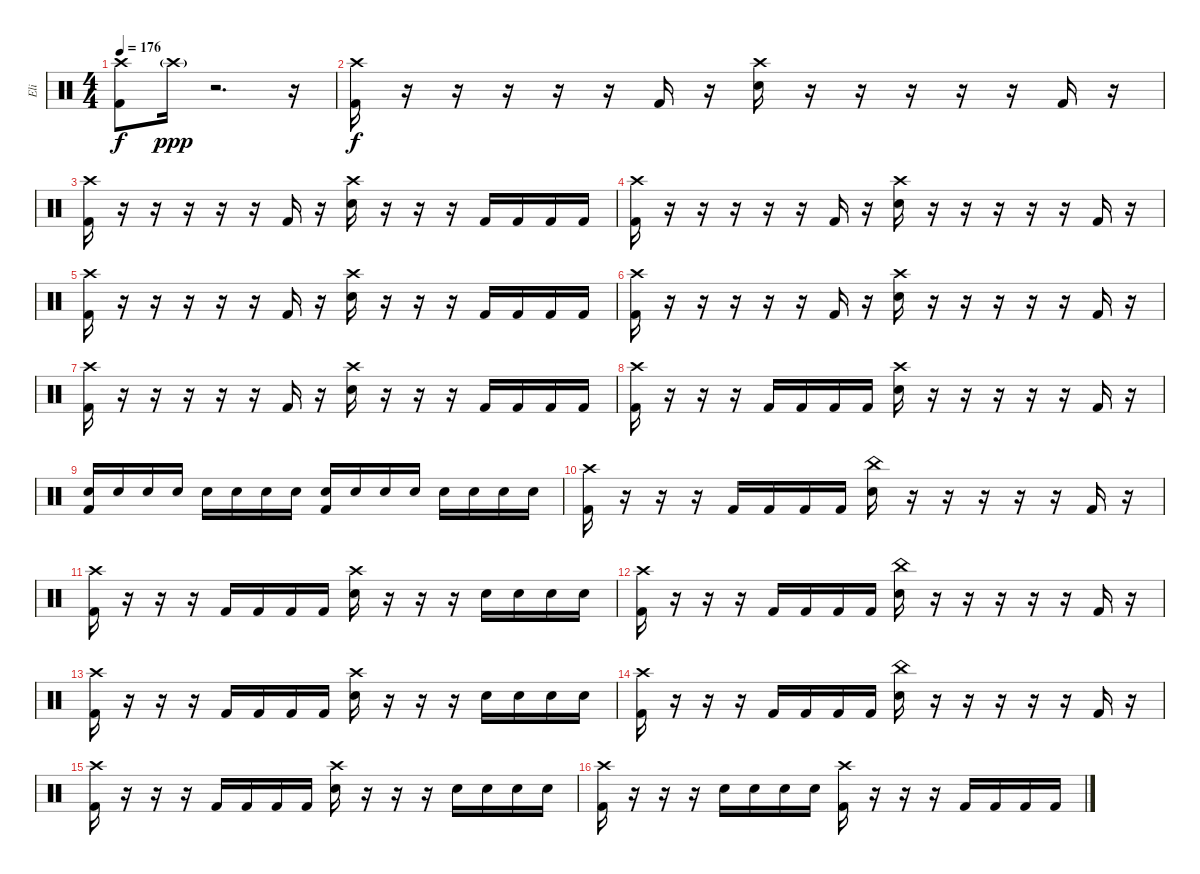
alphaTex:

\track ("Eli" "Eli") {instrument percussion}
\staff {score}
\articulation defaults
\ts (4 4)
\tempo 176
\clef neutral
\ks c
("Crash high (hit)" "Kick (hit) 2").8{dy f} "Crash high (hit)"{g}.16{dy ppp} r.2{d} r.16 |
("Crash high (hit)" "Kick (hit) 2").16{dy f} r.16 r.16 r.16 r.16 r.16 "Kick (hit) 2".16 r.16 ("Crash high (hit)" "Snare (hit) 2").16 r.16 r.16 r.16 r.16 r.16 "Kick (hit) 2".16 r.16 |
("Crash high (hit)" "Kick (hit) 2").16 r.16 r.16 r.16 r.16 r.16 "Kick (hit) 2".16 r.16 ("Crash high (hit)" "Snare (hit) 2").16 r.16 r.16 r.16 "Kick (hit) 2".16 "Kick (hit) 2".16 "Kick (hit) 2".16 "Kick (hit) 2".16 |
("Crash high (hit)" "Kick (hit) 2").16 r.16 r.16 r.16 r.16 r.16 "Kick (hit) 2".16 r.16 ("Crash high (hit)" "Snare (hit) 2").16 r.16 r.16 r.16 r.16 r.16 "Kick (hit) 2".16 r.16 |
("Crash high (hit)" "Kick (hit) 2").16 r.16 r.16 r.16 r.16 r.16 "Kick (hit) 2".16 r.16 ("Crash high (hit)" "Snare (hit) 2").16 r.16 r.16 r.16 "Kick (hit) 2".16 "Kick (hit) 2".16 "Kick (hit) 2".16 "Kick (hit) 2".16 |
("Crash high (hit)" "Kick (hit) 2").16 r.16 r.16 r.16 r.16 r.16 "Kick (hit) 2".16 r.16 ("Crash high (hit)" "Snare (hit) 2").16 r.16 r.16 r.16 r.16 r.16 "Kick (hit) 2".16 r.16 |
("Crash high (hit)" "Kick (hit) 2").16 r.16 r.16 r.16 r.16 r.16 "Kick (hit) 2".16 r.16 ("Crash high (hit)" "Snare (hit) 2").16 r.16 r.16 r.16 "Kick (hit) 2".16 "Kick (hit) 2".16 "Kick (hit) 2".16 "Kick (hit) 2".16 |
("Crash high (hit)" "Kick (hit) 2").16 r.16 r.16 r.16 "Kick (hit) 2".16 "Kick (hit) 2".16 "Kick (hit) 2".16 "Kick (hit) 2".16 ("Crash high (hit)" "Snare (hit) 2").16 r.16 r.16 r.16 r.16 r.16 "Kick (hit) 2".16 r.16 |
("Snare (hit) 2" "Kick (hit) 2").16 "Snare (hit) 2".16 "Snare (hit) 2".16 "Snare (hit) 2".16 "Snare (hit) 2".16 "Snare (hit) 2".16 "Snare (hit) 2".16 "Snare (hit) 2".16 ("Snare (hit) 2" "Kick (hit) 2").16 "Snare (hit) 2".16 "Snare (hit) 2".16 "Snare (hit) 2".16 "Snare (hit) 2".16 "Snare (hit) 2".16 "Snare (hit) 2".16 "Snare (hit) 2".16 |
("Crash high (hit)" "Kick (hit) 2").16 r.16 r.16 r.16 "Kick (hit) 2".16 "Kick (hit) 2".16 "Kick (hit) 2".16 "Kick (hit) 2".16 ("China (hit)" "Snare (hit) 2").16 r.16 r.16 r.16 r.16 r.16 "Kick (hit) 2".16 r.16 |
("Crash high (hit)" "Kick (hit) 2").16 r.16 r.16 r.16 "Kick (hit) 2".16 "Kick (hit) 2".16 "Kick (hit) 2".16 "Kick (hit) 2".16 ("Crash high (hit)" "Snare (hit) 2").16 r.16 r.16 r.16 "Snare (hit) 2".16 "Snare (hit) 2".16 "Snare (hit) 2".16 "Snare (hit) 2".16 |
("Crash high (hit)" "Kick (hit) 2").16 r.16 r.16 r.16 "Kick (hit) 2".16 "Kick (hit) 2".16 "Kick (hit) 2".16 "Kick (hit) 2".16 ("China (hit)" "Snare (hit) 2").16 r.16 r.16 r.16 r.16 r.16 "Kick (hit) 2".16 r.16 |
("Crash high (hit)" "Kick (hit) 2").16 r.16 r.16 r.16 "Kick (hit) 2".16 "Kick (hit) 2".16 "Kick (hit) 2".16 "Kick (hit) 2".16 ("Crash high (hit)" "Snare (hit) 2").16 r.16 r.16 r.16 "Snare (hit) 2".16 "Snare (hit) 2".16 "Snare (hit) 2".16 "Snare (hit) 2".16 |
("Crash high (hit)" "Kick (hit) 2").16 r.16 r.16 r.16 "Kick (hit) 2".16 "Kick (hit) 2".16 "Kick (hit) 2".16 "Kick (hit) 2".16 ("China (hit)" "Snare (hit) 2").16 r.16 r.16 r.16 r.16 r.16 "Kick (hit) 2".16 r.16 |
("Crash high (hit)" "Kick (hit) 2").16 r.16 r.16 r.16 "Kick (hit) 2".16 "Kick (hit) 2".16 "Kick (hit) 2".16 "Kick (hit) 2".16 ("Crash high (hit)" "Snare (hit) 2").16 r.16 r.16 r.16 "Snare (hit) 2".16 "Snare (hit) 2".16 "Snare (hit) 2".16 "Snare (hit) 2".16 |
("Crash high (hit)" "Kick (hit) 2").16 r.16 r.16 r.16 "Snare (hit) 2".16 "Snare (hit) 2".16 "Snare (hit) 2".16 "Snare (hit) 2".16 ("Crash high (hit)" "Kick (hit) 2").16 r.16 r.16 r.16 "Kick (hit) 2".16 "Kick (hit) 2".16 "Kick (hit) 2".16 "Kick (hit) 2".16
